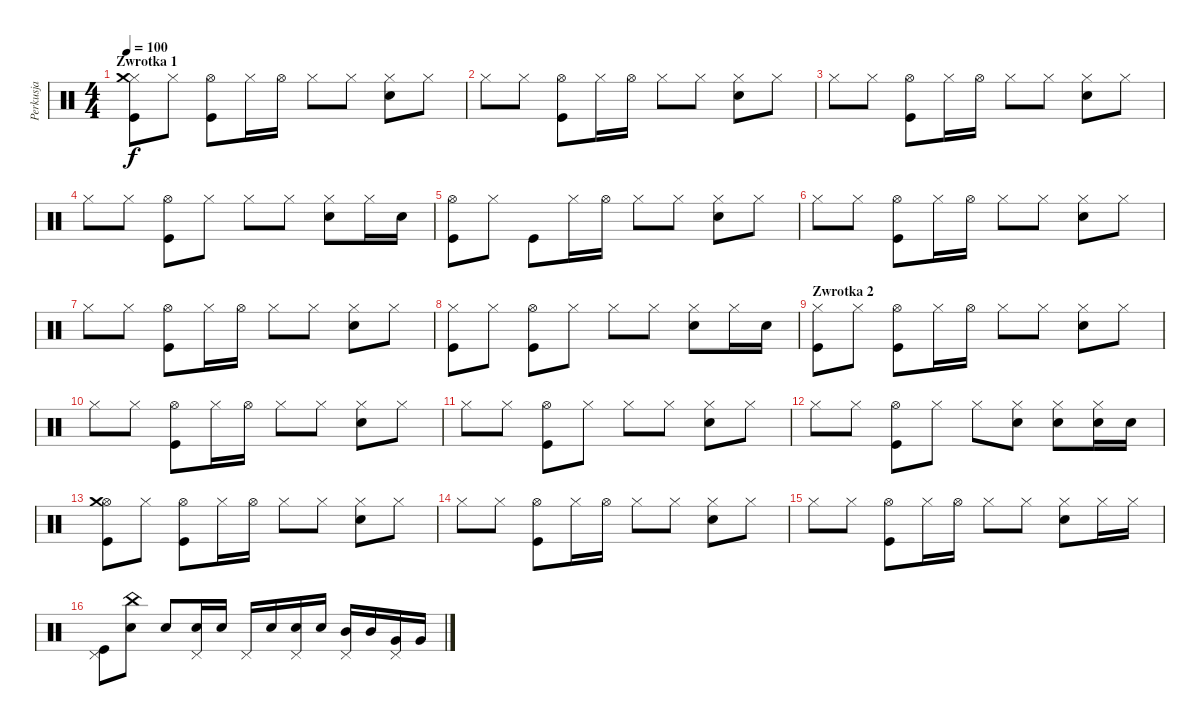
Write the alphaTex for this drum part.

\track ("Perkusja" "Perkusja") {instrument percussion}
\staff {score}
\articulation defaults
\ts (4 4)
\section ("" "Zwrotka 1")
\tempo 100
\clef neutral
\ks c
("Kick (hit)" "Hi-Hat (closed)" "Crash medium (hit)").8{dy f} "Hi-Hat (closed)".8 ("Kick (hit)" "Hi-Hat (open)").8 "Hi-Hat (closed)".16 "Hi-Hat (open)".16 "Hi-Hat (closed)".8 "Hi-Hat (closed)".8 ("Electric Snare (hit)" "Hi-Hat (closed)").8 "Hi-Hat (closed)".8 |
"Hi-Hat (closed)".8 "Hi-Hat (closed)".8 ("Kick (hit)" "Hi-Hat (open)").8 "Hi-Hat (closed)".16 "Hi-Hat (open)".16 "Hi-Hat (closed)".8 "Hi-Hat (closed)".8 ("Electric Snare (hit)" "Hi-Hat (closed)").8 "Hi-Hat (closed)".8 |
"Hi-Hat (closed)".8 "Hi-Hat (closed)".8 ("Kick (hit)" "Hi-Hat (open)").8 "Hi-Hat (closed)".16 "Hi-Hat (open)".16 "Hi-Hat (closed)".8 "Hi-Hat (closed)".8 ("Electric Snare (hit)" "Hi-Hat (closed)").8 "Hi-Hat (closed)".8 |
"Hi-Hat (closed)".8 "Hi-Hat (closed)".8 ("Kick (hit)" "Hi-Hat (open)").8 "Hi-Hat (closed)".8 "Hi-Hat (closed)".8 "Hi-Hat (closed)".8 ("Electric Snare (hit)" "Hi-Hat (closed)").8 "Hi-Hat (closed)".16 "Electric Snare (hit)".16 |
("Kick (hit)" "Hi-Hat (open)").8 "Hi-Hat (closed)".8 "Kick (hit)".8 "Hi-Hat (closed)".16 "Hi-Hat (open)".16 "Hi-Hat (closed)".8 "Hi-Hat (closed)".8 ("Electric Snare (hit)" "Hi-Hat (closed)").8 "Hi-Hat (closed)".8 |
"Hi-Hat (closed)".8 "Hi-Hat (closed)".8 ("Kick (hit)" "Hi-Hat (open)").8 "Hi-Hat (closed)".16 "Hi-Hat (open)".16 "Hi-Hat (closed)".8 "Hi-Hat (closed)".8 ("Electric Snare (hit)" "Hi-Hat (closed)").8 "Hi-Hat (closed)".8 |
"Hi-Hat (closed)".8 "Hi-Hat (closed)".8 ("Kick (hit)" "Hi-Hat (open)").8 "Hi-Hat (closed)".16 "Hi-Hat (open)".16 "Hi-Hat (closed)".8 "Hi-Hat (closed)".8 ("Electric Snare (hit)" "Hi-Hat (closed)").8 "Hi-Hat (closed)".8 |
("Kick (hit)" "Hi-Hat (closed)").8 "Hi-Hat (closed)".8 ("Kick (hit)" "Hi-Hat (open)").8 "Hi-Hat (closed)".8 "Hi-Hat (closed)".8 "Hi-Hat (closed)".8 ("Electric Snare (hit)" "Hi-Hat (closed)").8 "Hi-Hat (closed)".16 "Electric Snare (hit)".16 |
\section ("" "Zwrotka 2")
("Kick (hit)" "Hi-Hat (closed)").8 "Hi-Hat (closed)".8 ("Kick (hit)" "Hi-Hat (open)").8 "Hi-Hat (closed)".16 "Hi-Hat (open)".16 "Hi-Hat (closed)".8 "Hi-Hat (closed)".8 ("Electric Snare (hit)" "Hi-Hat (closed)").8 "Hi-Hat (closed)".8 |
"Hi-Hat (closed)".8 "Hi-Hat (closed)".8 ("Kick (hit)" "Hi-Hat (open)").8 "Hi-Hat (closed)".16 "Hi-Hat (open)".16 "Hi-Hat (closed)".8 "Hi-Hat (closed)".8 ("Electric Snare (hit)" "Hi-Hat (closed)").8 "Hi-Hat (closed)".8 |
"Hi-Hat (closed)".8 "Hi-Hat (closed)".8 ("Kick (hit)" "Hi-Hat (open)").8 "Hi-Hat (closed)".8 "Hi-Hat (closed)".8 "Hi-Hat (closed)".8 ("Electric Snare (hit)" "Hi-Hat (closed)").8 "Hi-Hat (closed)".8 |
"Hi-Hat (closed)".8 "Hi-Hat (closed)".8 ("Kick (hit)" "Hi-Hat (open)").8 "Hi-Hat (closed)".8 "Hi-Hat (closed)".8 ("Electric Snare (hit)" "Hi-Hat (closed)").8 ("Electric Snare (hit)" "Hi-Hat (closed)").8 ("Electric Snare (hit)" "Hi-Hat (closed)").16 "Electric Snare (hit)".16 |
("Kick (hit)" "Hi-Hat (open)" "Crash medium (hit)").8 "Hi-Hat (closed)".8 ("Kick (hit)" "Hi-Hat (open)").8 "Hi-Hat (closed)".16 "Hi-Hat (open)".16 "Hi-Hat (closed)".8 "Hi-Hat (closed)".8 ("Electric Snare (hit)" "Hi-Hat (closed)").8 "Hi-Hat (closed)".8 |
"Hi-Hat (closed)".8 "Hi-Hat (closed)".8 ("Kick (hit)" "Hi-Hat (open)").8 "Hi-Hat (closed)".16 "Hi-Hat (open)".16 "Hi-Hat (closed)".8 "Hi-Hat (closed)".8 ("Electric Snare (hit)" "Hi-Hat (closed)").8 "Hi-Hat (closed)".8 |
"Hi-Hat (closed)".8 "Hi-Hat (closed)".8 ("Kick (hit)" "Hi-Hat (open)").8 "Hi-Hat (closed)".16 "Hi-Hat (open)".16 "Hi-Hat (closed)".8 "Hi-Hat (closed)".8 ("Electric Snare (hit)" "Hi-Hat (closed)").8 "Hi-Hat (closed)".16 "Hi-Hat (closed)".16 |
("Kick (hit)" "Pedal Hi-Hat (hit)").8 ("Electric Snare (hit)" "China (hit)").8 "Electric Snare (hit)".8 ("Electric Snare (hit)" "Pedal Hi-Hat (hit)").16 "Electric Snare (hit)".16 "Pedal Hi-Hat (hit)".16 "Electric Snare (hit)".16 ("Electric Snare (hit)" "Pedal Hi-Hat (hit)").16 "Electric Snare (hit)".16 ("Pedal Hi-Hat (hit)" "Mid Tom (hit)").16 "Mid Tom (hit)".16 ("Very Low Tom (hit)" "Pedal Hi-Hat (hit)").16 "Very Low Tom (hit)".16
